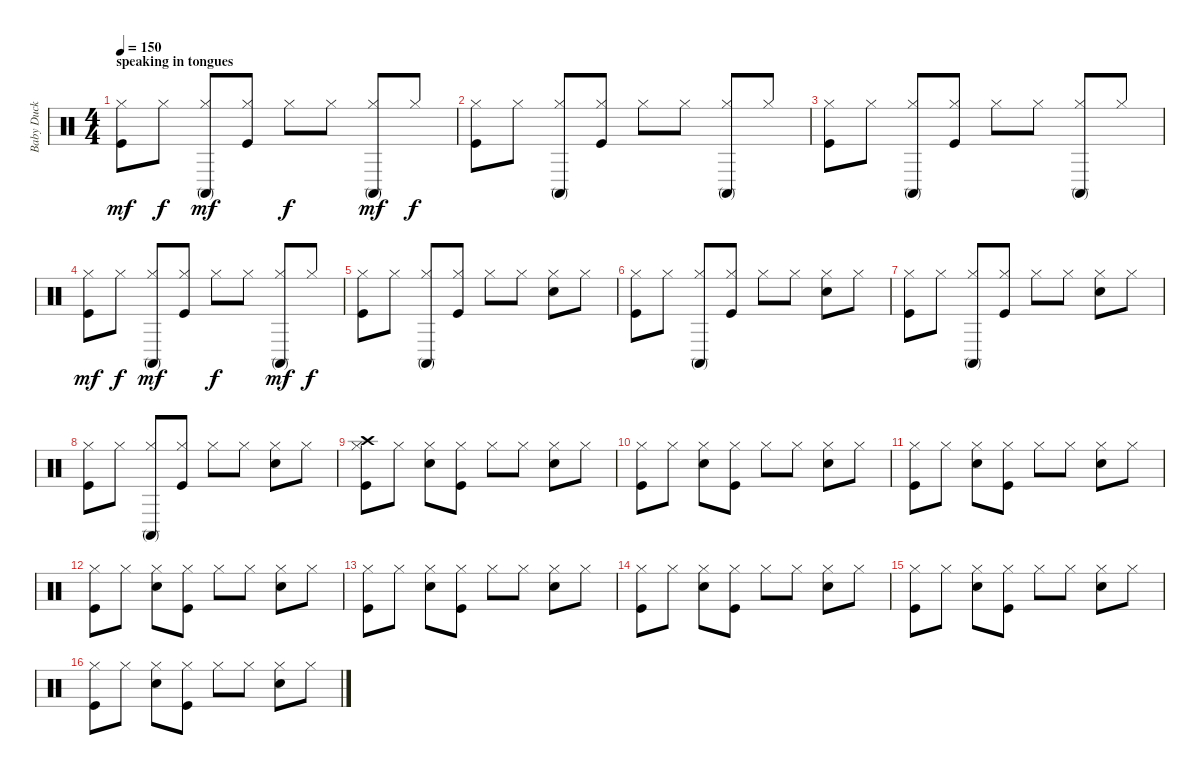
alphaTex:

\track ("Baby Duck" "Baby Duck") {instrument percussion}
\staff {score}
\articulation defaults
\ts (4 4)
\section ("" "speaking in tongues")
\tempo 150
\clef neutral
\ks c
("Kick (hit)" "Hi-Hat (closed)").8{dy mf} "Hi-Hat (closed)".8{dy f} ("Conga high (mute)" "Hi-Hat (closed)").8{dy mf} ("Kick (hit)" "Hi-Hat (closed)").8 "Hi-Hat (closed)".8{dy f} "Hi-Hat (closed)".8 ("Conga high (mute)" "Hi-Hat (closed)").8{dy mf} "Hi-Hat (closed)".8{dy f} |
("Kick (hit)" "Hi-Hat (closed)").8 "Hi-Hat (closed)".8 ("Conga high (mute)" "Hi-Hat (closed)").8 ("Kick (hit)" "Hi-Hat (closed)").8 "Hi-Hat (closed)".8 "Hi-Hat (closed)".8 ("Conga high (mute)" "Hi-Hat (closed)").8 "Hi-Hat (closed)".8 |
("Kick (hit)" "Hi-Hat (closed)").8 "Hi-Hat (closed)".8 ("Conga high (mute)" "Hi-Hat (closed)").8 ("Kick (hit)" "Hi-Hat (closed)").8 "Hi-Hat (closed)".8 "Hi-Hat (closed)".8 ("Conga high (mute)" "Hi-Hat (closed)").8 "Hi-Hat (closed)".8 |
("Kick (hit)" "Hi-Hat (closed)").8{dy mf} "Hi-Hat (closed)".8{dy f} ("Conga high (mute)" "Hi-Hat (closed)").8{dy mf} ("Kick (hit)" "Hi-Hat (closed)").8 "Hi-Hat (closed)".8{dy f} "Hi-Hat (closed)".8 ("Conga high (mute)" "Hi-Hat (closed)").8{dy mf} "Hi-Hat (closed)".8{dy f} |
("Kick (hit)" "Hi-Hat (closed)").8 "Hi-Hat (closed)".8 ("Conga high (mute)" "Hi-Hat (closed)").8 ("Kick (hit)" "Hi-Hat (closed)").8 "Hi-Hat (closed)".8 "Hi-Hat (closed)".8 ("Electric Snare (hit)" "Hi-Hat (closed)").8 "Hi-Hat (closed)".8 |
("Kick (hit)" "Hi-Hat (closed)").8 "Hi-Hat (closed)".8 ("Conga high (mute)" "Hi-Hat (closed)").8 ("Kick (hit)" "Hi-Hat (closed)").8 "Hi-Hat (closed)".8 "Hi-Hat (closed)".8 ("Electric Snare (hit)" "Hi-Hat (closed)").8 "Hi-Hat (closed)".8 |
("Kick (hit)" "Hi-Hat (closed)").8 "Hi-Hat (closed)".8 ("Conga high (mute)" "Hi-Hat (closed)").8 ("Kick (hit)" "Hi-Hat (closed)").8 "Hi-Hat (closed)".8 "Hi-Hat (closed)".8 ("Electric Snare (hit)" "Hi-Hat (closed)").8 "Hi-Hat (closed)".8 |
("Kick (hit)" "Hi-Hat (closed)").8 "Hi-Hat (closed)".8 ("Conga high (mute)" "Hi-Hat (closed)").8 ("Kick (hit)" "Hi-Hat (closed)").8 "Hi-Hat (closed)".8 "Hi-Hat (closed)".8 ("Electric Snare (hit)" "Hi-Hat (closed)").8 "Hi-Hat (closed)".8 |
\section ("" "")
("Kick (hit)" "Hi-Hat (closed)" "Crash high (hit)").8 "Hi-Hat (closed)".8 ("Electric Snare (hit)" "Hi-Hat (closed)").8 ("Kick (hit)" "Hi-Hat (closed)").8 "Hi-Hat (closed)".8 "Hi-Hat (closed)".8 ("Electric Snare (hit)" "Hi-Hat (closed)").8 "Hi-Hat (closed)".8 |
("Kick (hit)" "Hi-Hat (closed)").8 "Hi-Hat (closed)".8 ("Electric Snare (hit)" "Hi-Hat (closed)").8 ("Kick (hit)" "Hi-Hat (closed)").8 "Hi-Hat (closed)".8 "Hi-Hat (closed)".8 ("Electric Snare (hit)" "Hi-Hat (closed)").8 "Hi-Hat (closed)".8 |
("Kick (hit)" "Hi-Hat (closed)").8 "Hi-Hat (closed)".8 ("Electric Snare (hit)" "Hi-Hat (closed)").8 ("Kick (hit)" "Hi-Hat (closed)").8 "Hi-Hat (closed)".8 "Hi-Hat (closed)".8 ("Electric Snare (hit)" "Hi-Hat (closed)").8 "Hi-Hat (closed)".8 |
("Kick (hit)" "Hi-Hat (closed)").8 "Hi-Hat (closed)".8 ("Electric Snare (hit)" "Hi-Hat (closed)").8 ("Kick (hit)" "Hi-Hat (closed)").8 "Hi-Hat (closed)".8 "Hi-Hat (closed)".8 ("Electric Snare (hit)" "Hi-Hat (closed)").8 "Hi-Hat (closed)".8 |
("Kick (hit)" "Hi-Hat (closed)").8 "Hi-Hat (closed)".8 ("Electric Snare (hit)" "Hi-Hat (closed)").8 ("Kick (hit)" "Hi-Hat (closed)").8 "Hi-Hat (closed)".8 "Hi-Hat (closed)".8 ("Electric Snare (hit)" "Hi-Hat (closed)").8 "Hi-Hat (closed)".8 |
("Kick (hit)" "Hi-Hat (closed)").8 "Hi-Hat (closed)".8 ("Electric Snare (hit)" "Hi-Hat (closed)").8 ("Kick (hit)" "Hi-Hat (closed)").8 "Hi-Hat (closed)".8 "Hi-Hat (closed)".8 ("Electric Snare (hit)" "Hi-Hat (closed)").8 "Hi-Hat (closed)".8 |
("Kick (hit)" "Hi-Hat (closed)").8 "Hi-Hat (closed)".8 ("Electric Snare (hit)" "Hi-Hat (closed)").8 ("Kick (hit)" "Hi-Hat (closed)").8 "Hi-Hat (closed)".8 "Hi-Hat (closed)".8 ("Electric Snare (hit)" "Hi-Hat (closed)").8 "Hi-Hat (closed)".8 |
("Kick (hit)" "Hi-Hat (closed)").8 "Hi-Hat (closed)".8 ("Electric Snare (hit)" "Hi-Hat (closed)").8 ("Kick (hit)" "Hi-Hat (closed)").8 "Hi-Hat (closed)".8 "Hi-Hat (closed)".8 ("Electric Snare (hit)" "Hi-Hat (closed)").8 "Hi-Hat (closed)".8
